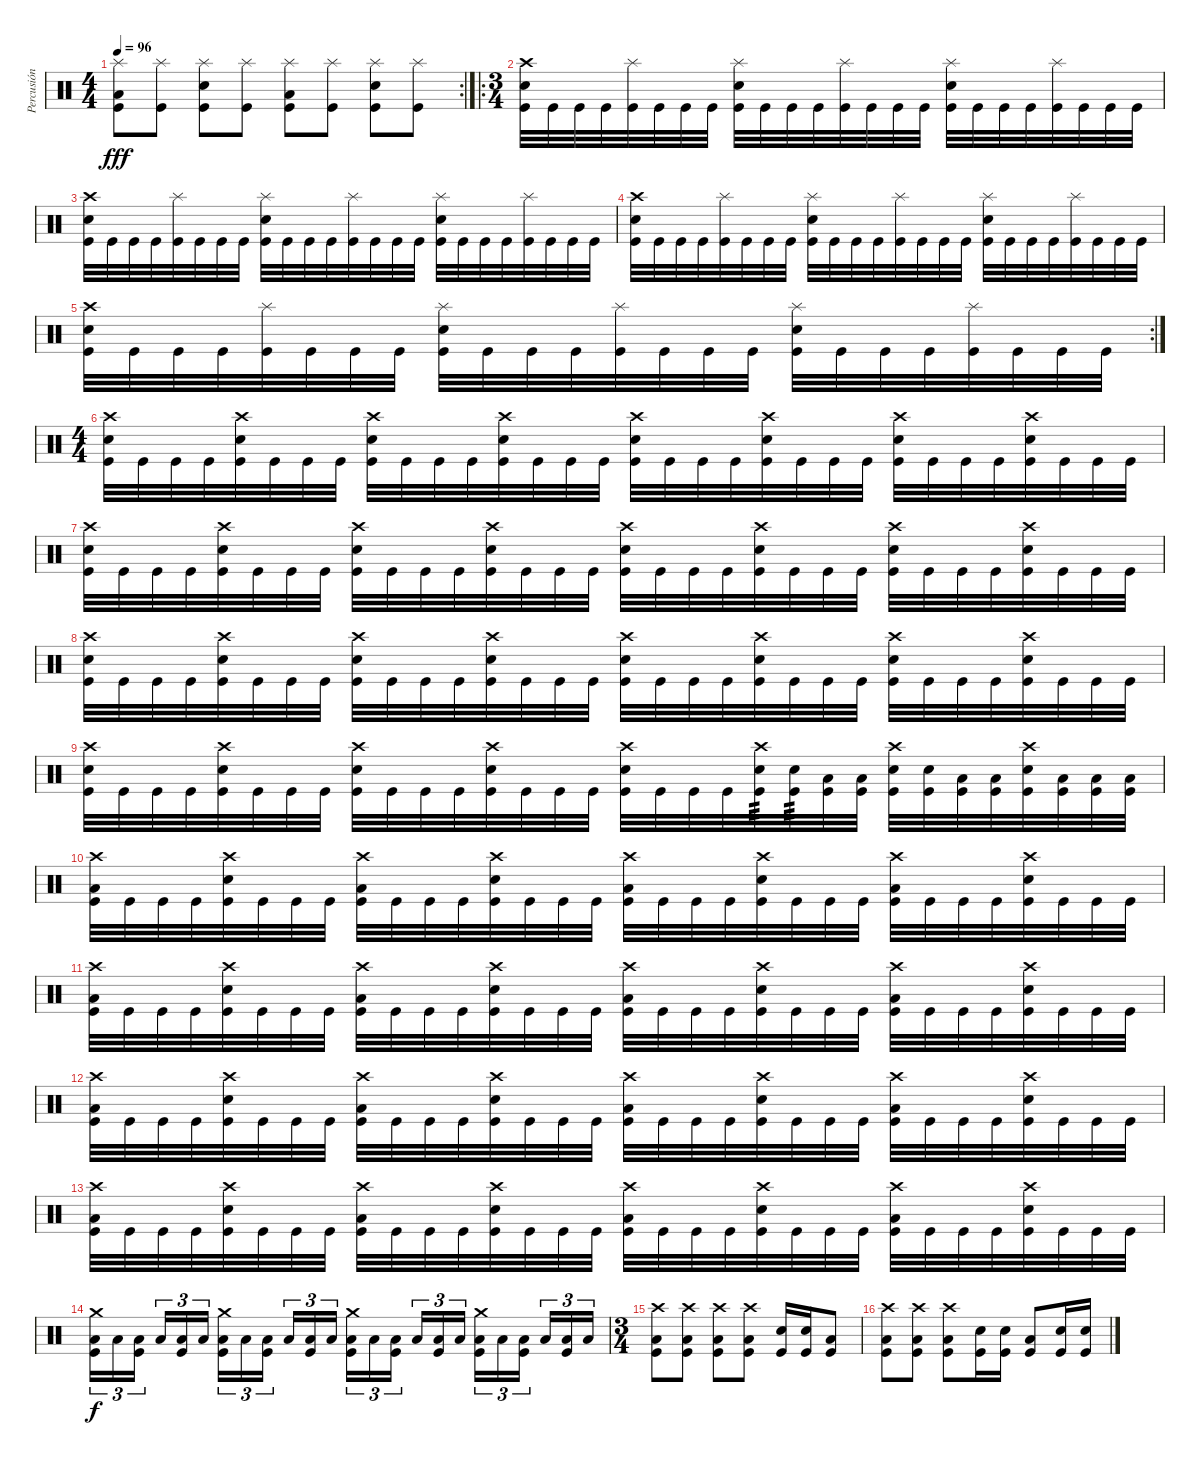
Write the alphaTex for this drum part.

\track ("Percusión" "Percusión") {instrument percussion}
\staff {score}
\articulation defaults
\rc 2
\ts (4 4)
\tempo 96
\clef neutral
\ks c
("Splash (hit)" "Low Floor Tom (hit)" "Kick (hit)").8{dy fff} ("Splash (hit)" "Kick (hit)").8 ("Splash (hit)" "Snare (hit) 2" "Kick (hit)").8 ("Splash (hit)" "Kick (hit)").8 ("Splash (hit)" "Low Floor Tom (hit)" "Kick (hit)").8 ("Splash (hit)" "Kick (hit)").8 ("Splash (hit)" "Snare (hit) 2" "Kick (hit)").8 ("Splash (hit)" "Kick (hit)").8 |
\ro
\ts (3 4)
("Crash high (hit)" "Snare (hit) 2" "Kick (hit)").32 "Kick (hit)".32 "Kick (hit)".32 "Kick (hit)".32 ("Splash (hit)" "Kick (hit)").32 "Kick (hit)".32 "Kick (hit)".32 "Kick (hit)".32 ("Splash (hit)" "Snare (hit) 2" "Kick (hit)").32 "Kick (hit)".32 "Kick (hit)".32 "Kick (hit)".32 ("Splash (hit)" "Kick (hit)").32 "Kick (hit)".32 "Kick (hit)".32 "Kick (hit)".32 ("Splash (hit)" "Snare (hit) 2" "Kick (hit)").32 "Kick (hit)".32 "Kick (hit)".32 "Kick (hit)".32 ("Splash (hit)" "Kick (hit)").32 "Kick (hit)".32 "Kick (hit)".32 "Kick (hit)".32 |
("Crash high (hit)" "Snare (hit) 2" "Kick (hit)").32 "Kick (hit)".32 "Kick (hit)".32 "Kick (hit)".32 ("Splash (hit)" "Kick (hit)").32 "Kick (hit)".32 "Kick (hit)".32 "Kick (hit)".32 ("Splash (hit)" "Snare (hit) 2" "Kick (hit)").32 "Kick (hit)".32 "Kick (hit)".32 "Kick (hit)".32 ("Splash (hit)" "Kick (hit)").32 "Kick (hit)".32 "Kick (hit)".32 "Kick (hit)".32 ("Splash (hit)" "Snare (hit) 2" "Kick (hit)").32 "Kick (hit)".32 "Kick (hit)".32 "Kick (hit)".32 ("Splash (hit)" "Kick (hit)").32 "Kick (hit)".32 "Kick (hit)".32 "Kick (hit)".32 |
("Crash high (hit)" "Snare (hit) 2" "Kick (hit)").32 "Kick (hit)".32 "Kick (hit)".32 "Kick (hit)".32 ("Splash (hit)" "Kick (hit)").32 "Kick (hit)".32 "Kick (hit)".32 "Kick (hit)".32 ("Splash (hit)" "Snare (hit) 2" "Kick (hit)").32 "Kick (hit)".32 "Kick (hit)".32 "Kick (hit)".32 ("Splash (hit)" "Kick (hit)").32 "Kick (hit)".32 "Kick (hit)".32 "Kick (hit)".32 ("Splash (hit)" "Snare (hit) 2" "Kick (hit)").32 "Kick (hit)".32 "Kick (hit)".32 "Kick (hit)".32 ("Splash (hit)" "Kick (hit)").32 "Kick (hit)".32 "Kick (hit)".32 "Kick (hit)".32 |
\rc 2
("Crash high (hit)" "Snare (hit) 2" "Kick (hit)").32 "Kick (hit)".32 "Kick (hit)".32 "Kick (hit)".32 ("Splash (hit)" "Kick (hit)").32 "Kick (hit)".32 "Kick (hit)".32 "Kick (hit)".32 ("Splash (hit)" "Snare (hit) 2" "Kick (hit)").32 "Kick (hit)".32 "Kick (hit)".32 "Kick (hit)".32 ("Splash (hit)" "Kick (hit)").32 "Kick (hit)".32 "Kick (hit)".32 "Kick (hit)".32 ("Splash (hit)" "Snare (hit) 2" "Kick (hit)").32 "Kick (hit)".32 "Kick (hit)".32 "Kick (hit)".32 ("Splash (hit)" "Kick (hit)").32 "Kick (hit)".32 "Kick (hit)".32 "Kick (hit)".32 |
\ts (4 4)
("Crash high (hit)" "Snare (hit) 2" "Kick (hit)").32 "Kick (hit)".32 "Kick (hit)".32 "Kick (hit)".32 ("Crash high (hit)" "Snare (hit) 2" "Kick (hit)").32 "Kick (hit)".32 "Kick (hit)".32 "Kick (hit)".32 ("Crash high (hit)" "Snare (hit) 2" "Kick (hit)").32 "Kick (hit)".32 "Kick (hit)".32 "Kick (hit)".32 ("Crash high (hit)" "Snare (hit) 2" "Kick (hit)").32 "Kick (hit)".32 "Kick (hit)".32 "Kick (hit)".32 ("Crash high (hit)" "Snare (hit) 2" "Kick (hit)").32 "Kick (hit)".32 "Kick (hit)".32 "Kick (hit)".32 ("Crash high (hit)" "Snare (hit) 2" "Kick (hit)").32 "Kick (hit)".32 "Kick (hit)".32 "Kick (hit)".32 ("Crash high (hit)" "Snare (hit) 2" "Kick (hit)").32 "Kick (hit)".32 "Kick (hit)".32 "Kick (hit)".32 ("Crash high (hit)" "Snare (hit) 2" "Kick (hit)").32 "Kick (hit)".32 "Kick (hit)".32 "Kick (hit)".32 |
("Crash high (hit)" "Snare (hit) 2" "Kick (hit)").32 "Kick (hit)".32 "Kick (hit)".32 "Kick (hit)".32 ("Crash high (hit)" "Snare (hit) 2" "Kick (hit)").32 "Kick (hit)".32 "Kick (hit)".32 "Kick (hit)".32 ("Crash high (hit)" "Snare (hit) 2" "Kick (hit)").32 "Kick (hit)".32 "Kick (hit)".32 "Kick (hit)".32 ("Crash high (hit)" "Snare (hit) 2" "Kick (hit)").32 "Kick (hit)".32 "Kick (hit)".32 "Kick (hit)".32 ("Crash high (hit)" "Snare (hit) 2" "Kick (hit)").32 "Kick (hit)".32 "Kick (hit)".32 "Kick (hit)".32 ("Crash high (hit)" "Snare (hit) 2" "Kick (hit)").32 "Kick (hit)".32 "Kick (hit)".32 "Kick (hit)".32 ("Crash high (hit)" "Snare (hit) 2" "Kick (hit)").32 "Kick (hit)".32 "Kick (hit)".32 "Kick (hit)".32 ("Crash high (hit)" "Snare (hit) 2" "Kick (hit)").32 "Kick (hit)".32 "Kick (hit)".32 "Kick (hit)".32 |
("Crash high (hit)" "Snare (hit) 2" "Kick (hit)").32 "Kick (hit)".32 "Kick (hit)".32 "Kick (hit)".32 ("Crash high (hit)" "Snare (hit) 2" "Kick (hit)").32 "Kick (hit)".32 "Kick (hit)".32 "Kick (hit)".32 ("Crash high (hit)" "Snare (hit) 2" "Kick (hit)").32 "Kick (hit)".32 "Kick (hit)".32 "Kick (hit)".32 ("Crash high (hit)" "Snare (hit) 2" "Kick (hit)").32 "Kick (hit)".32 "Kick (hit)".32 "Kick (hit)".32 ("Crash high (hit)" "Snare (hit) 2" "Kick (hit)").32 "Kick (hit)".32 "Kick (hit)".32 "Kick (hit)".32 ("Crash high (hit)" "Snare (hit) 2" "Kick (hit)").32 "Kick (hit)".32 "Kick (hit)".32 "Kick (hit)".32 ("Crash high (hit)" "Snare (hit) 2" "Kick (hit)").32 "Kick (hit)".32 "Kick (hit)".32 "Kick (hit)".32 ("Crash high (hit)" "Snare (hit) 2" "Kick (hit)").32 "Kick (hit)".32 "Kick (hit)".32 "Kick (hit)".32 |
("Crash high (hit)" "Snare (hit) 2" "Kick (hit)").32 "Kick (hit)".32 "Kick (hit)".32 "Kick (hit)".32 ("Crash high (hit)" "Snare (hit) 2" "Kick (hit)").32 "Kick (hit)".32 "Kick (hit)".32 "Kick (hit)".32 ("Crash high (hit)" "Snare (hit) 2" "Kick (hit)").32 "Kick (hit)".32 "Kick (hit)".32 "Kick (hit)".32 ("Crash high (hit)" "Snare (hit) 2" "Kick (hit)").32 "Kick (hit)".32 "Kick (hit)".32 "Kick (hit)".32 ("Crash high (hit)" "Snare (hit) 2" "Kick (hit)").32 "Kick (hit)".32 "Kick (hit)".32 "Kick (hit)".32 ("Crash high (hit)" "Snare (hit) 2" "Kick (hit)").32{tp 3} ("Snare (hit) 2" "Kick (hit)").32{tp 3} ("Low Floor Tom (hit)" "Kick (hit)").32 ("Low Floor Tom (hit)" "Kick (hit)").32 ("Crash high (hit)" "Snare (hit) 2" "Kick (hit)").32 ("Snare (hit) 2" "Kick (hit)").32 ("Low Floor Tom (hit)" "Kick (hit)").32 ("Low Floor Tom (hit)" "Kick (hit)").32 ("Crash high (hit)" "Snare (hit) 2" "Kick (hit)").32 ("Low Floor Tom (hit)" "Kick (hit)").32 ("Low Floor Tom (hit)" "Kick (hit)").32 ("Low Floor Tom (hit)" "Kick (hit)").32 |
("Crash high (hit)" "Low Floor Tom (hit)" "Kick (hit)").32 "Kick (hit)".32 "Kick (hit)".32 "Kick (hit)".32 ("Crash high (hit)" "Snare (hit) 2" "Kick (hit)").32 "Kick (hit)".32 "Kick (hit)".32 "Kick (hit)".32 ("Crash high (hit)" "Low Floor Tom (hit)" "Kick (hit)").32 "Kick (hit)".32 "Kick (hit)".32 "Kick (hit)".32 ("Crash high (hit)" "Snare (hit) 2" "Kick (hit)").32 "Kick (hit)".32 "Kick (hit)".32 "Kick (hit)".32 ("Crash high (hit)" "Low Floor Tom (hit)" "Kick (hit)").32 "Kick (hit)".32 "Kick (hit)".32 "Kick (hit)".32 ("Crash high (hit)" "Snare (hit) 2" "Kick (hit)").32 "Kick (hit)".32 "Kick (hit)".32 "Kick (hit)".32 ("Crash high (hit)" "Low Floor Tom (hit)" "Kick (hit)").32 "Kick (hit)".32 "Kick (hit)".32 "Kick (hit)".32 ("Crash high (hit)" "Snare (hit) 2" "Kick (hit)").32 "Kick (hit)".32 "Kick (hit)".32 "Kick (hit)".32 |
("Crash high (hit)" "Low Floor Tom (hit)" "Kick (hit)").32 "Kick (hit)".32 "Kick (hit)".32 "Kick (hit)".32 ("Crash high (hit)" "Snare (hit) 2" "Kick (hit)").32 "Kick (hit)".32 "Kick (hit)".32 "Kick (hit)".32 ("Crash high (hit)" "Low Floor Tom (hit)" "Kick (hit)").32 "Kick (hit)".32 "Kick (hit)".32 "Kick (hit)".32 ("Crash high (hit)" "Snare (hit) 2" "Kick (hit)").32 "Kick (hit)".32 "Kick (hit)".32 "Kick (hit)".32 ("Crash high (hit)" "Low Floor Tom (hit)" "Kick (hit)").32 "Kick (hit)".32 "Kick (hit)".32 "Kick (hit)".32 ("Crash high (hit)" "Snare (hit) 2" "Kick (hit)").32 "Kick (hit)".32 "Kick (hit)".32 "Kick (hit)".32 ("Crash high (hit)" "Low Floor Tom (hit)" "Kick (hit)").32 "Kick (hit)".32 "Kick (hit)".32 "Kick (hit)".32 ("Crash high (hit)" "Snare (hit) 2" "Kick (hit)").32 "Kick (hit)".32 "Kick (hit)".32 "Kick (hit)".32 |
("Crash high (hit)" "Low Floor Tom (hit)" "Kick (hit)").32 "Kick (hit)".32 "Kick (hit)".32 "Kick (hit)".32 ("Crash high (hit)" "Snare (hit) 2" "Kick (hit)").32 "Kick (hit)".32 "Kick (hit)".32 "Kick (hit)".32 ("Crash high (hit)" "Low Floor Tom (hit)" "Kick (hit)").32 "Kick (hit)".32 "Kick (hit)".32 "Kick (hit)".32 ("Crash high (hit)" "Snare (hit) 2" "Kick (hit)").32 "Kick (hit)".32 "Kick (hit)".32 "Kick (hit)".32 ("Crash high (hit)" "Low Floor Tom (hit)" "Kick (hit)").32 "Kick (hit)".32 "Kick (hit)".32 "Kick (hit)".32 ("Crash high (hit)" "Snare (hit) 2" "Kick (hit)").32 "Kick (hit)".32 "Kick (hit)".32 "Kick (hit)".32 ("Crash high (hit)" "Low Floor Tom (hit)" "Kick (hit)").32 "Kick (hit)".32 "Kick (hit)".32 "Kick (hit)".32 ("Crash high (hit)" "Snare (hit) 2" "Kick (hit)").32 "Kick (hit)".32 "Kick (hit)".32 "Kick (hit)".32 |
("Crash high (hit)" "Low Floor Tom (hit)" "Kick (hit)").32 "Kick (hit)".32 "Kick (hit)".32 "Kick (hit)".32 ("Crash high (hit)" "Snare (hit) 2" "Kick (hit)").32 "Kick (hit)".32 "Kick (hit)".32 "Kick (hit)".32 ("Crash high (hit)" "Low Floor Tom (hit)" "Kick (hit)").32 "Kick (hit)".32 "Kick (hit)".32 "Kick (hit)".32 ("Crash high (hit)" "Snare (hit) 2" "Kick (hit)").32 "Kick (hit)".32 "Kick (hit)".32 "Kick (hit)".32 ("Crash high (hit)" "Low Floor Tom (hit)" "Kick (hit)").32 "Kick (hit)".32 "Kick (hit)".32 "Kick (hit)".32 ("Crash high (hit)" "Snare (hit) 2" "Kick (hit)").32 "Kick (hit)".32 "Kick (hit)".32 "Kick (hit)".32 ("Crash high (hit)" "Low Floor Tom (hit)" "Kick (hit)").32 "Kick (hit)".32 "Kick (hit)".32 "Kick (hit)".32 ("Crash high (hit)" "Snare (hit) 2" "Kick (hit)").32 "Kick (hit)".32 "Kick (hit)".32 "Kick (hit)".32 |
("Crash medium (hit)" "Low Floor Tom (hit)" "Kick (hit)").16{tu (3 2) dy f} "Low Floor Tom (hit)".16{tu (3 2)} ("Low Floor Tom (hit)" "Kick (hit)").16{tu (3 2) beam splitsecondary} "Low Floor Tom (hit)".16{tu (3 2)} ("Low Floor Tom (hit)" "Kick (hit)").16{tu (3 2)} "Low Floor Tom (hit)".16{tu (3 2)} ("Crash medium (hit)" "Low Floor Tom (hit)" "Kick (hit)").16{tu (3 2)} "Low Floor Tom (hit)".16{tu (3 2)} ("Low Floor Tom (hit)" "Kick (hit)").16{tu (3 2) beam splitsecondary} "Low Floor Tom (hit)".16{tu (3 2)} ("Low Floor Tom (hit)" "Kick (hit)").16{tu (3 2)} "Low Floor Tom (hit)".16{tu (3 2)} ("Crash medium (hit)" "Low Floor Tom (hit)" "Kick (hit)").16{tu (3 2)} "Low Floor Tom (hit)".16{tu (3 2)} ("Low Floor Tom (hit)" "Kick (hit)").16{tu (3 2) beam splitsecondary} "Low Floor Tom (hit)".16{tu (3 2)} ("Low Floor Tom (hit)" "Kick (hit)").16{tu (3 2)} "Low Floor Tom (hit)".16{tu (3 2)} ("Crash medium (hit)" "Low Floor Tom (hit)" "Kick (hit)").16{tu (3 2)} "Low Floor Tom (hit)".16{tu (3 2)} ("Low Floor Tom (hit)" "Kick (hit)").16{tu (3 2) beam splitsecondary} "Low Floor Tom (hit)".16{tu (3 2)} ("Low Floor Tom (hit)" "Kick (hit)").16{tu (3 2)} "Low Floor Tom (hit)".16{tu (3 2)} |
\ts (3 4)
("Crash high (hit)" "Low Floor Tom (hit)" "Kick (hit)").8 ("Crash high (hit)" "Low Floor Tom (hit)" "Kick (hit)").8 ("Crash high (hit)" "Low Floor Tom (hit)" "Kick (hit)").8 ("Crash high (hit)" "Low Floor Tom (hit)" "Kick (hit)").8 ("Snare (hit) 2" "Kick (hit)").16 ("Snare (hit) 2" "Kick (hit)").16 ("Low Floor Tom (hit)" "Kick (hit)").8 |
("Crash high (hit)" "Low Floor Tom (hit)" "Kick (hit)").8 ("Crash high (hit)" "Low Floor Tom (hit)" "Kick (hit)").8 ("Crash high (hit)" "Low Floor Tom (hit)" "Kick (hit)").8 ("Snare (hit) 2" "Kick (hit)").16 ("Snare (hit) 2" "Kick (hit)").16 ("Low Floor Tom (hit)" "Kick (hit)").8 ("Snare (hit) 2" "Kick (hit)").16 ("Snare (hit) 2" "Kick (hit)").16
